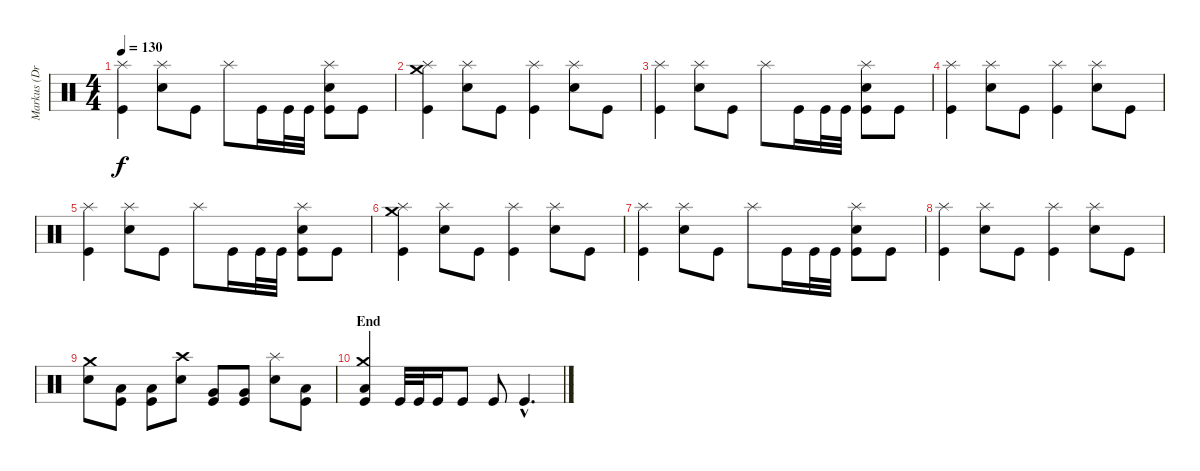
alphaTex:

\track ("Markus (Drums)" "Markus (Dr") {instrument percussion}
\staff {score}
\articulation defaults
\ts (4 4)
\tempo 130
\clef neutral
\ks c
("Splash (hit)" "Kick (hit)").4{dy f} ("Splash (hit)" "Electric Snare (hit)").8 "Kick (hit)".8 "Splash (hit)".8 "Kick (hit)".16 "Kick (hit)".32 "Kick (hit)".32 ("Splash (hit)" "Electric Snare (hit)" "Kick (hit)").8 "Kick (hit)".8 |
\section ("" "")
("Crash medium (hit)" "Splash (hit)" "Kick (hit)").4 ("Splash (hit)" "Electric Snare (hit)").8 "Kick (hit)".8 ("Splash (hit)" "Kick (hit)").4 ("Splash (hit)" "Electric Snare (hit)").8 "Kick (hit)".8 |
("Splash (hit)" "Kick (hit)").4 ("Splash (hit)" "Electric Snare (hit)").8 "Kick (hit)".8 "Splash (hit)".8 "Kick (hit)".16 "Kick (hit)".32 "Kick (hit)".32 ("Splash (hit)" "Electric Snare (hit)" "Kick (hit)").8 "Kick (hit)".8 |
("Splash (hit)" "Kick (hit)").4 ("Splash (hit)" "Electric Snare (hit)").8 "Kick (hit)".8 ("Splash (hit)" "Kick (hit)").4 ("Splash (hit)" "Electric Snare (hit)").8 "Kick (hit)".8 |
("Splash (hit)" "Kick (hit)").4 ("Splash (hit)" "Electric Snare (hit)").8 "Kick (hit)".8 "Splash (hit)".8 "Kick (hit)".16 "Kick (hit)".32 "Kick (hit)".32 ("Splash (hit)" "Electric Snare (hit)" "Kick (hit)").8 "Kick (hit)".8 |
\section ("" "")
("Crash medium (hit)" "Splash (hit)" "Kick (hit)").4 ("Splash (hit)" "Electric Snare (hit)").8 "Kick (hit)".8 ("Splash (hit)" "Kick (hit)").4 ("Splash (hit)" "Electric Snare (hit)").8 "Kick (hit)".8 |
("Splash (hit)" "Kick (hit)").4 ("Splash (hit)" "Electric Snare (hit)").8 "Kick (hit)".8 "Splash (hit)".8 "Kick (hit)".16 "Kick (hit)".32 "Kick (hit)".32 ("Splash (hit)" "Electric Snare (hit)" "Kick (hit)").8 "Kick (hit)".8 |
("Splash (hit)" "Kick (hit)").4 ("Splash (hit)" "Electric Snare (hit)").8 "Kick (hit)".8 ("Splash (hit)" "Kick (hit)").4 ("Splash (hit)" "Electric Snare (hit)").8 "Kick (hit)".8 |
("Crash medium (hit)" "Electric Snare (hit)").8 ("Low Tom (hit)" "Kick (hit)").8 ("Low Tom (hit)" "Kick (hit)").8 ("Crash high (hit)" "Electric Snare (hit)").8 ("Very Low Tom (hit)" "Kick (hit)").8 ("Very Low Tom (hit)" "Kick (hit)").8 ("Splash (hit)" "Electric Snare (hit)").8 ("Low Floor Tom (hit)" "Kick (hit)").8 |
\section ("" "End")
("Crash medium (hit)" "Low Floor Tom (hit)" "Kick (hit)").4 "Kick (hit)".32 "Kick (hit)".32 "Kick (hit)".16 "Kick (hit)".8 "Kick (hit)".8 "Kick (hit)"{hac}.4{d}
